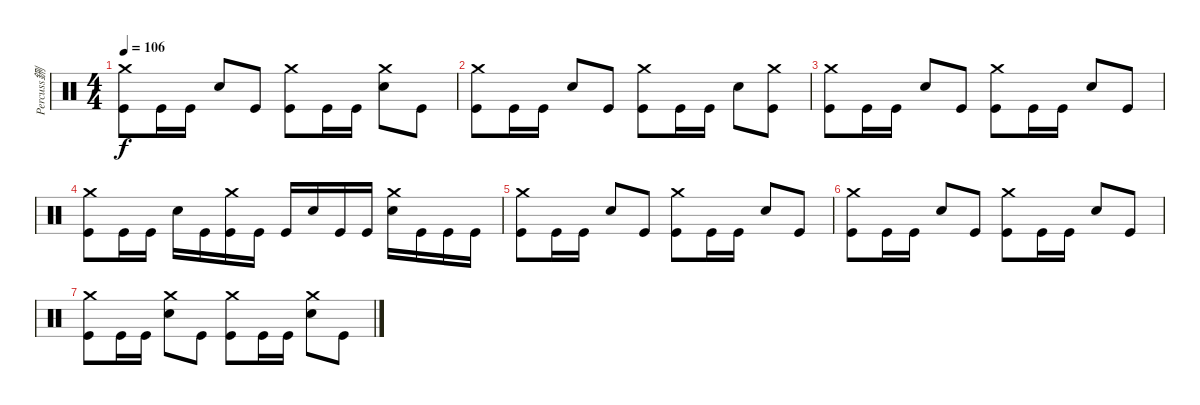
\track ("Percuss鉶" "Percuss鉶") {instrument percussion}
\staff {score}
\articulation defaults
\ts (4 4)
\tempo 106
\clef neutral
\ks c
("Crash medium (hit)" "Kick (hit)").8{dy f} "Kick (hit)".16 "Kick (hit)".16 "Snare (hit) 2".8 "Kick (hit)".8 ("Crash medium (hit)" "Kick (hit)").8 "Kick (hit)".16 "Kick (hit)".16 ("Crash medium (hit)" "Snare (hit) 2").8 "Kick (hit)".8 |
("Crash medium (hit)" "Kick (hit)").8 "Kick (hit)".16 "Kick (hit)".16 "Snare (hit) 2".8 "Kick (hit)".8 ("Crash medium (hit)" "Kick (hit)").8 "Kick (hit)".16 "Kick (hit)".16 "Snare (hit) 2".8 ("Crash medium (hit)" "Kick (hit)").8 |
("Crash medium (hit)" "Kick (hit)").8 "Kick (hit)".16 "Kick (hit)".16 "Snare (hit) 2".8 "Kick (hit)".8 ("Crash medium (hit)" "Kick (hit)").8 "Kick (hit)".16 "Kick (hit)".16 "Snare (hit) 2".8 "Kick (hit)".8 |
("Crash medium (hit)" "Kick (hit)").8 "Kick (hit)".16 "Kick (hit)".16 "Snare (hit) 2".16 "Kick (hit)".16 ("Crash medium (hit)" "Kick (hit)").16 "Kick (hit)".16 "Kick (hit)".16 "Snare (hit) 2".16 "Kick (hit)".16 "Kick (hit)".16 ("Crash medium (hit)" "Snare (hit) 2").16 "Kick (hit)".16 "Kick (hit)".16 "Kick (hit)".16 |
("Crash medium (hit)" "Kick (hit)").8 "Kick (hit)".16 "Kick (hit)".16 "Snare (hit) 2".8 "Kick (hit)".8 ("Crash medium (hit)" "Kick (hit)").8 "Kick (hit)".16 "Kick (hit)".16 "Snare (hit) 2".8 "Kick (hit)".8 |
("Crash medium (hit)" "Kick (hit)").8{volume 0} "Kick (hit)".16 "Kick (hit)".16 "Snare (hit) 2".8 "Kick (hit)".8 ("Crash medium (hit)" "Kick (hit)").8 "Kick (hit)".16 "Kick (hit)".16 "Snare (hit) 2".8 "Kick (hit)".8 |
("Crash medium (hit)" "Kick (hit)").8 "Kick (hit)".16 "Kick (hit)".16 ("Crash medium (hit)" "Snare (hit) 2").8 "Kick (hit)".8 ("Crash medium (hit)" "Kick (hit)").8 "Kick (hit)".16 "Kick (hit)".16 ("Crash medium (hit)" "Snare (hit) 2").8 "Kick (hit)".8
